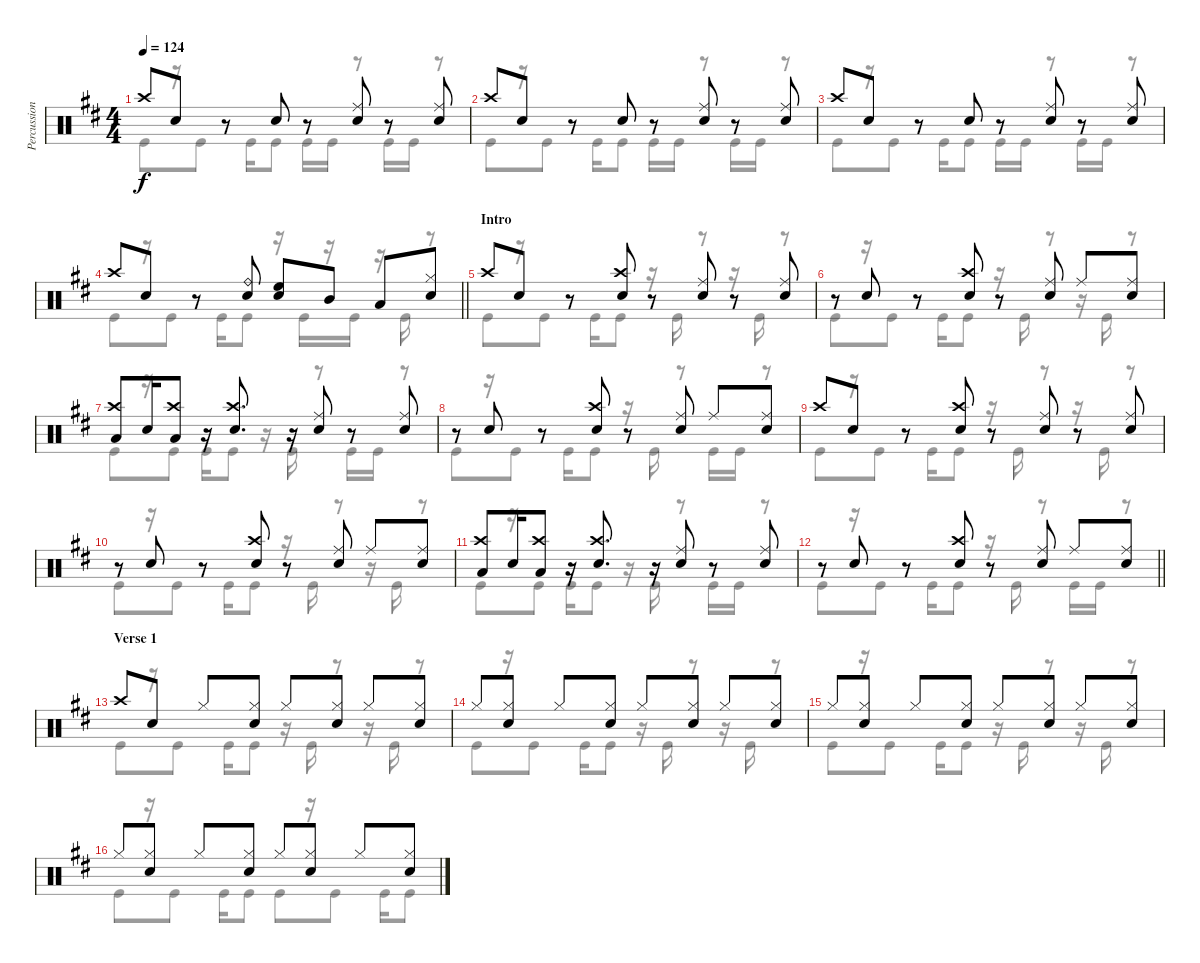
\track ("Percussion" "Percussion") {instrument percussion}
\staff {score}
\articulation defaults
\voice
\ts (4 4)
\tempo 124
\clef neutral
\ks d "Crash high (hit)".8{dy f} "Snare (hit) 2".8
r.8 "Snare (hit) 2".8 r.8 ("Ride (middle)" "Snare (hit) 2").8 r.8 ("Ride (middle)" "Snare (hit) 2").8 |
"Crash high (hit)".8 "Snare (hit) 2".8 r.8 "Snare (hit) 2".8 r.8 ("Ride (middle)" "Snare (hit) 2").8 r.8 ("Ride (middle)" "Snare (hit) 2").8 |
"Crash high (hit)".8 "Snare (hit) 2".8 r.8 "Snare (hit) 2".8 r.8 ("Ride (middle)" "Snare (hit) 2").8 r.8 ("Ride (middle)" "Snare (hit) 2").8 |
\barLineRight lightlight "Crash high (hit)".8 "Snare (hit) 2".8
r.8 ("Ride (bell)" "Snare (hit) 2").8 ("High Floor Tom (hit)" "Snare (hit) 2").8 "Mid Tom (hit)".8 "Low Tom (hit)".8 ("Hi-Hat (closed)" "Snare (hit) 2").8 |
\section ("" "Intro")
"Crash high (hit)".8 "Snare (hit) 2".8 r.8 ("Crash high (hit)" "Snare (hit) 2").8 r.8 ("Ride (middle)" "Snare (hit) 2").8 r.8 ("Ride (middle)" "Snare (hit) 2").8 |
r.8 "Snare (hit) 2".8 r.8 ("Crash high (hit)" "Snare (hit) 2").8 r.8 ("Ride (middle)" "Snare (hit) 2").8 "Ride (middle)".8 ("Ride (middle)" "Snare (hit) 2").8 |
("Crash high (hit)" "Low Tom (hit)").8 "Snare (hit) 2".16 ("Crash high (hit)" "Low Tom (hit)").8 r.16 ("Crash high (hit)" "Snare (hit) 2").8{d} r.16 ("Ride (middle)" "Snare (hit) 2").8 r.8 ("Ride (middle)" "Snare (hit) 2").8 |
r.8 "Snare (hit) 2".8 r.8 ("Crash high (hit)" "Snare (hit) 2").8 r.8 ("Ride (middle)" "Snare (hit) 2").8 "Ride (middle)".8 ("Ride (middle)" "Snare (hit) 2").8 |
"Crash high (hit)".8 "Snare (hit) 2".8 r.8 ("Crash high (hit)" "Snare (hit) 2").8 r.8 ("Ride (middle)" "Snare (hit) 2").8 r.8 ("Ride (middle)" "Snare (hit) 2").8 |
r.8 "Snare (hit) 2".8 r.8 ("Crash high (hit)" "Snare (hit) 2").8 r.8 ("Ride (middle)" "Snare (hit) 2").8 "Ride (middle)".8 ("Ride (middle)" "Snare (hit) 2").8 |
("Crash high (hit)" "Low Tom (hit)").8 "Snare (hit) 2".16 ("Crash high (hit)" "Low Tom (hit)").8 r.16 ("Crash high (hit)" "Snare (hit) 2").8{d} r.16 ("Ride (middle)" "Snare (hit) 2").8 r.8 ("Ride (middle)" "Snare (hit) 2").8 |
\barLineRight lightlight
r.8 "Snare (hit) 2".8 r.8 ("Crash high (hit)" "Snare (hit) 2").8 r.8 ("Ride (middle)" "Snare (hit) 2").8 "Ride (middle)".8 ("Ride (middle)" "Snare (hit) 2").8 |
\section ("" "Verse 1")
"Crash high (hit)".8 "Snare (hit) 2".8 "Hi-Hat (closed)".8 ("Hi-Hat (closed)" "Snare (hit) 2").8 "Hi-Hat (closed)".8 ("Hi-Hat (closed)" "Snare (hit) 2").8 "Hi-Hat (closed)".8 ("Hi-Hat (closed)" "Snare (hit) 2").8 |
"Hi-Hat (closed)".8 ("Hi-Hat (closed)" "Snare (hit) 2").8 "Hi-Hat (closed)".8 ("Hi-Hat (closed)" "Snare (hit) 2").8 "Hi-Hat (closed)".8 ("Hi-Hat (closed)" "Snare (hit) 2").8 "Hi-Hat (closed)".8 ("Hi-Hat (closed)" "Snare (hit) 2").8 |
"Hi-Hat (closed)".8 ("Hi-Hat (closed)" "Snare (hit) 2").8 "Hi-Hat (closed)".8 ("Hi-Hat (closed)" "Snare (hit) 2").8 "Hi-Hat (closed)".8 ("Hi-Hat (closed)" "Snare (hit) 2").8 "Hi-Hat (closed)".8 ("Hi-Hat (closed)" "Snare (hit) 2").8 |
"Hi-Hat (closed)".8 ("Hi-Hat (closed)" "Snare (hit) 2").8 "Hi-Hat (closed)".8 ("Hi-Hat (closed)" "Snare (hit) 2").8 "Hi-Hat (closed)".8 ("Hi-Hat (closed)" "Snare (hit) 2").8 "Hi-Hat (closed)".8 ("Hi-Hat (closed)" "Snare (hit) 2").8
\voice
\clef neutral
\ottava regular
\simile none
\ks d "Kick (hit)".8{dy f}
r.16 "Kick (hit)".8 "Kick (hit)".16 "Kick (hit)".8 "Kick (hit)".16 "Kick (hit)".16 r.8 "Kick (hit)".16 "Kick (hit)".16 r.8 |
"Kick (hit)".8 r.16 "Kick (hit)".8 "Kick (hit)".16 "Kick (hit)".8 "Kick (hit)".16 "Kick (hit)".16 r.8 "Kick (hit)".16 "Kick (hit)".16 r.8 |
"Kick (hit)".8 r.16 "Kick (hit)".8 "Kick (hit)".16 "Kick (hit)".8 "Kick (hit)".16 "Kick (hit)".16 r.8 "Kick (hit)".16 "Kick (hit)".16 r.8 |
\barLineRight lightlight "Kick (hit)".8
r.16 "Kick (hit)".8 "Kick (hit)".16 "Kick (hit)".8 r.16 "Kick (hit)".16 r.16 "Kick (hit)".16 r.16 "Kick (hit)".16 r.8 |
"Kick (hit)".8 r.16 "Kick (hit)".8 "Kick (hit)".16 "Kick (hit)".8 r.16 "Kick (hit)".16 r.8 r.16 "Kick (hit)".16 r.8 |
"Kick (hit)".8 r.16 "Kick (hit)".8 "Kick (hit)".16 "Kick (hit)".8 r.16 "Kick (hit)".16 r.8 r.16 "Kick (hit)".16 r.8 |
"Kick (hit)".8 r.16 "Kick (hit)".8 "Kick (hit)".16 "Kick (hit)".8 r.16 "Kick (hit)".16 r.8 "Kick (hit)".16 "Kick (hit)".16 r.8 |
"Kick (hit)".8 r.16 "Kick (hit)".8 "Kick (hit)".16 "Kick (hit)".8 r.16 "Kick (hit)".16 r.8 "Kick (hit)".16 "Kick (hit)".16 r.8 |
"Kick (hit)".8 r.16 "Kick (hit)".8 "Kick (hit)".16 "Kick (hit)".8 r.16 "Kick (hit)".16 r.8 r.16 "Kick (hit)".16 r.8 |
"Kick (hit)".8 r.16 "Kick (hit)".8 "Kick (hit)".16 "Kick (hit)".8 r.16 "Kick (hit)".16 r.8 r.16 "Kick (hit)".16 r.8 |
"Kick (hit)".8 r.16 "Kick (hit)".8 "Kick (hit)".16 "Kick (hit)".8 r.16 "Kick (hit)".16 r.8 "Kick (hit)".16 "Kick (hit)".16 r.8 |
\barLineRight lightlight "Kick (hit)".8
r.16 "Kick (hit)".8 "Kick (hit)".16 "Kick (hit)".8 r.16 "Kick (hit)".16 r.8 "Kick (hit)".16 "Kick (hit)".16 r.8 |
"Kick (hit)".8 r.16 "Kick (hit)".8 "Kick (hit)".16 "Kick (hit)".8 r.16 "Kick (hit)".16 r.8 r.16 "Kick (hit)".16 r.8 |
"Kick (hit)".8 r.16 "Kick (hit)".8 "Kick (hit)".16 "Kick (hit)".8 r.16 "Kick (hit)".16 r.8 r.16 "Kick (hit)".16 r.8 |
"Kick (hit)".8 r.16 "Kick (hit)".8 "Kick (hit)".16 "Kick (hit)".8 r.16 "Kick (hit)".16 r.8 r.16 "Kick (hit)".16 r.8 |
"Kick (hit)".8 r.16 "Kick (hit)".8 "Kick (hit)".16 "Kick (hit)".8 "Kick (hit)".8 r.16 "Kick (hit)".8 "Kick (hit)".16 "Kick (hit)".8
